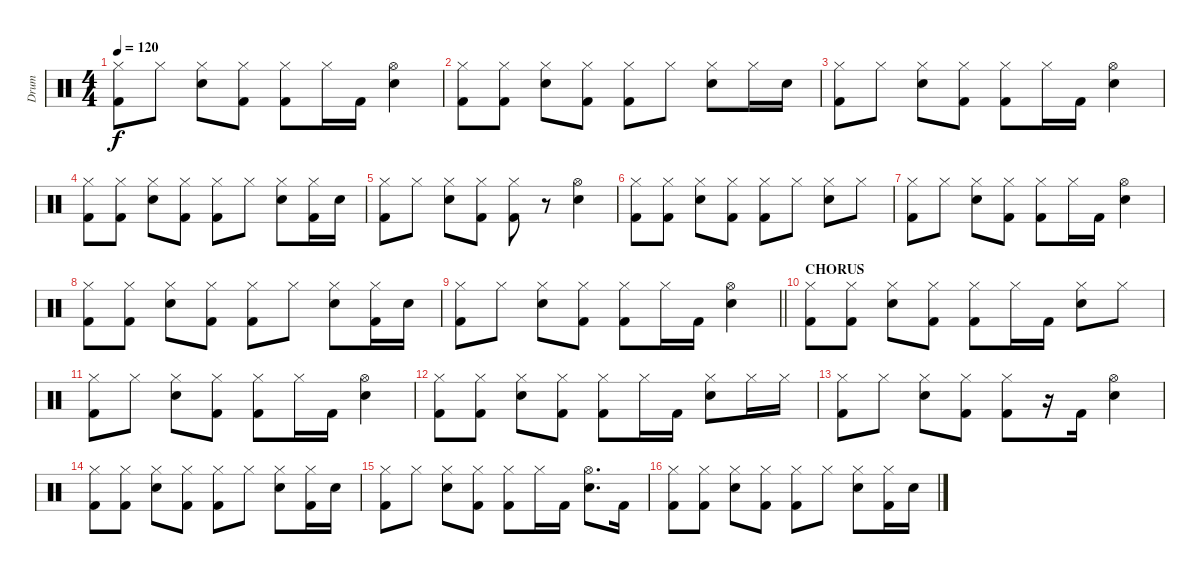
\track ("Drum" "Drum") {instrument percussion}
\staff {score}
\articulation defaults
\ts (4 4)
\tempo 120
\clef neutral
\ks c
("Kick (hit) 2" "Hi-Hat (closed)").8{dy f} "Hi-Hat (closed)".8 ("Snare (hit) 2" "Hi-Hat (closed)").8 ("Kick (hit) 2" "Hi-Hat (closed)").8 ("Kick (hit) 2" "Hi-Hat (closed)").8 "Hi-Hat (closed)".16 "Kick (hit) 2".16 ("Snare (hit) 2" "Hi-Hat (open)").4 |
("Kick (hit) 2" "Hi-Hat (closed)").8 ("Kick (hit) 2" "Hi-Hat (closed)").8 ("Snare (hit) 2" "Hi-Hat (closed)").8 ("Kick (hit) 2" "Hi-Hat (closed)").8 ("Kick (hit) 2" "Hi-Hat (closed)").8 "Hi-Hat (closed)".8 ("Snare (hit) 2" "Hi-Hat (closed)").8 "Hi-Hat (closed)".16 "Snare (hit) 2".16 |
("Kick (hit) 2" "Hi-Hat (closed)").8 "Hi-Hat (closed)".8 ("Snare (hit) 2" "Hi-Hat (closed)").8 ("Kick (hit) 2" "Hi-Hat (closed)").8 ("Kick (hit) 2" "Hi-Hat (closed)").8 "Hi-Hat (closed)".16 "Kick (hit) 2".16 ("Snare (hit) 2" "Hi-Hat (open)").4 |
("Kick (hit) 2" "Hi-Hat (closed)").8 ("Kick (hit) 2" "Hi-Hat (closed)").8 ("Snare (hit) 2" "Hi-Hat (closed)").8 ("Kick (hit) 2" "Hi-Hat (closed)").8 ("Kick (hit) 2" "Hi-Hat (closed)").8 "Hi-Hat (closed)".8 ("Snare (hit) 2" "Hi-Hat (closed)").8 ("Kick (hit) 2" "Hi-Hat (closed)").16 "Snare (hit) 2".16 |
("Kick (hit) 2" "Hi-Hat (closed)").8 "Hi-Hat (closed)".8 ("Snare (hit) 2" "Hi-Hat (closed)").8 ("Kick (hit) 2" "Hi-Hat (closed)").8 ("Kick (hit) 2" "Hi-Hat (closed)").8 r.8 ("Snare (hit) 2" "Hi-Hat (open)").4 |
("Kick (hit) 2" "Hi-Hat (closed)").8 ("Kick (hit) 2" "Hi-Hat (closed)").8 ("Snare (hit) 2" "Hi-Hat (closed)").8 ("Kick (hit) 2" "Hi-Hat (closed)").8 ("Kick (hit) 2" "Hi-Hat (closed)").8 "Hi-Hat (closed)".8 ("Snare (hit) 2" "Hi-Hat (closed)").8 "Hi-Hat (closed)".8 |
("Kick (hit) 2" "Hi-Hat (closed)").8 "Hi-Hat (closed)".8 ("Snare (hit) 2" "Hi-Hat (closed)").8 ("Kick (hit) 2" "Hi-Hat (closed)").8 ("Kick (hit) 2" "Hi-Hat (closed)").8 "Hi-Hat (closed)".16 "Kick (hit) 2".16 ("Snare (hit) 2" "Hi-Hat (open)").4 |
("Kick (hit) 2" "Hi-Hat (closed)").8 ("Kick (hit) 2" "Hi-Hat (closed)").8 ("Snare (hit) 2" "Hi-Hat (closed)").8 ("Kick (hit) 2" "Hi-Hat (closed)").8 ("Kick (hit) 2" "Hi-Hat (closed)").8 "Hi-Hat (closed)".8 ("Snare (hit) 2" "Hi-Hat (closed)").8 ("Kick (hit) 2" "Hi-Hat (closed)").16 "Snare (hit) 2".16 |
\barLineRight lightlight
("Kick (hit) 2" "Hi-Hat (closed)").8 "Hi-Hat (closed)".8 ("Snare (hit) 2" "Hi-Hat (closed)").8 ("Kick (hit) 2" "Hi-Hat (closed)").8 ("Kick (hit) 2" "Hi-Hat (closed)").8 "Hi-Hat (closed)".16 "Kick (hit) 2".16 ("Snare (hit) 2" "Hi-Hat (open)").4 |
\section ("" "CHORUS")
("Kick (hit) 2" "Hi-Hat (closed)").8 ("Kick (hit) 2" "Hi-Hat (closed)").8 ("Snare (hit) 2" "Hi-Hat (closed)").8 ("Kick (hit) 2" "Hi-Hat (closed)").8 ("Kick (hit) 2" "Hi-Hat (closed)").8 "Hi-Hat (closed)".16 "Kick (hit) 2".16 ("Snare (hit) 2" "Hi-Hat (closed)").8 "Hi-Hat (closed)".8 |
("Kick (hit) 2" "Hi-Hat (closed)").8 "Hi-Hat (closed)".8 ("Snare (hit) 2" "Hi-Hat (closed)").8 ("Kick (hit) 2" "Hi-Hat (closed)").8 ("Kick (hit) 2" "Hi-Hat (closed)").8 "Hi-Hat (closed)".16 "Kick (hit) 2".16 ("Snare (hit) 2" "Hi-Hat (open)").4 |
("Kick (hit) 2" "Hi-Hat (closed)").8 ("Kick (hit) 2" "Hi-Hat (closed)").8 ("Snare (hit) 2" "Hi-Hat (closed)").8 ("Kick (hit) 2" "Hi-Hat (closed)").8 ("Kick (hit) 2" "Hi-Hat (closed)").8 "Hi-Hat (closed)".16 "Kick (hit) 2".16 ("Snare (hit) 2" "Hi-Hat (closed)").8 "Hi-Hat (closed)".16 "Hi-Hat (closed)".16 |
("Kick (hit) 2" "Hi-Hat (closed)").8 "Hi-Hat (closed)".8 ("Snare (hit) 2" "Hi-Hat (closed)").8 ("Kick (hit) 2" "Hi-Hat (closed)").8 ("Kick (hit) 2" "Hi-Hat (closed)").8 r.16 "Kick (hit) 2".16 ("Snare (hit) 2" "Hi-Hat (open)").4 |
("Kick (hit) 2" "Hi-Hat (closed)").8 ("Kick (hit) 2" "Hi-Hat (closed)").8 ("Snare (hit) 2" "Hi-Hat (closed)").8 ("Kick (hit) 2" "Hi-Hat (closed)").8 ("Kick (hit) 2" "Hi-Hat (closed)").8 "Hi-Hat (closed)".8 ("Snare (hit) 2" "Hi-Hat (closed)").8 ("Kick (hit) 2" "Hi-Hat (closed)").16 "Snare (hit) 2".16 |
("Kick (hit) 2" "Hi-Hat (closed)").8 "Hi-Hat (closed)".8 ("Snare (hit) 2" "Hi-Hat (closed)").8 ("Kick (hit) 2" "Hi-Hat (closed)").8 ("Kick (hit) 2" "Hi-Hat (closed)").8 "Hi-Hat (closed)".16 "Kick (hit) 2".16 ("Snare (hit) 2" "Hi-Hat (open)").8{d} "Kick (hit) 2".16 |
("Kick (hit) 2" "Hi-Hat (closed)").8 ("Kick (hit) 2" "Hi-Hat (closed)").8 ("Snare (hit) 2" "Hi-Hat (closed)").8 ("Kick (hit) 2" "Hi-Hat (closed)").8 ("Kick (hit) 2" "Hi-Hat (closed)").8 "Hi-Hat (closed)".8 ("Snare (hit) 2" "Hi-Hat (closed)").8 ("Kick (hit) 2" "Hi-Hat (closed)").16 "Snare (hit) 2".16
